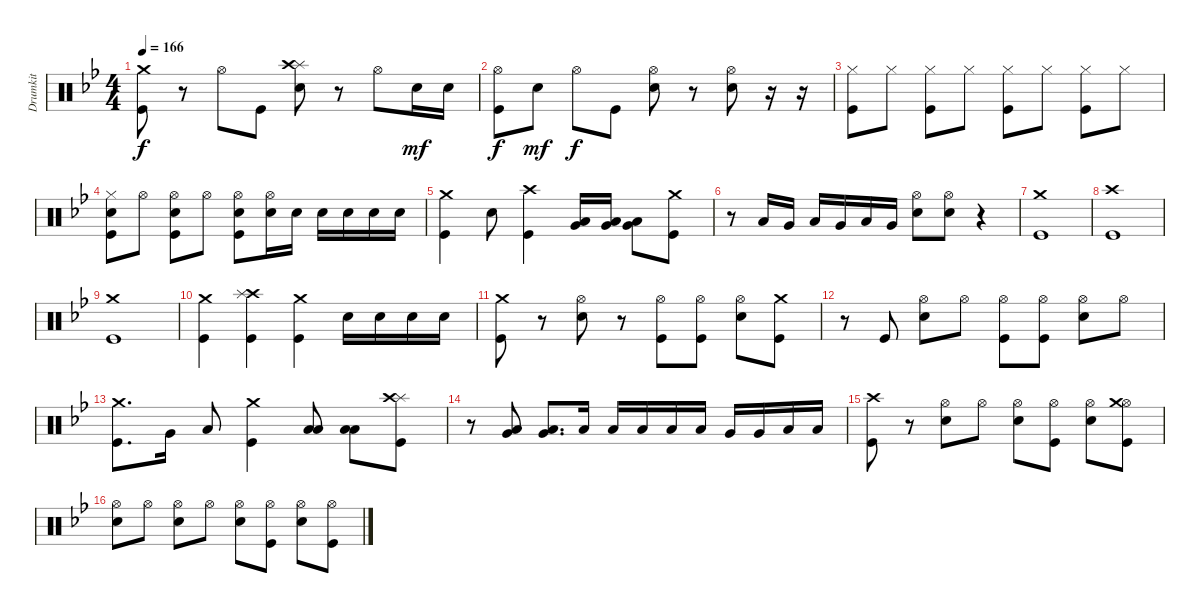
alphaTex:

\track ("Drumkit" "Drumkit") {instrument percussion}
\staff {score}
\articulation defaults
\ts (4 4)
\tempo 166
\clef neutral
\ks gminor
("Crash medium (hit)" "Kick (hit)").8{dy f} r.8 "Hi-Hat (open)".8 "Kick (hit)".8 ("Snare (hit) 2" "Splash (hit)" "Crash high (hit)").8 r.8 "Hi-Hat (open)".8 "Snare (hit) 2".16{dy mf} "Snare (hit) 2".16 |
("Kick (hit)" "Hi-Hat (open)").8{dy f} "Snare (hit) 2".8{dy mf} "Hi-Hat (open)".8{dy f} "Kick (hit)".8 ("Snare (hit) 2" "Hi-Hat (open)").8 r.8 ("Hi-Hat (open)" "Snare (hit) 2").8 r.16 r.16 |
("Kick (hit)" "Hi-Hat (closed)").8 "Hi-Hat (closed)".8 ("Hi-Hat (closed)" "Kick (hit)").8 "Hi-Hat (closed)".8 ("Hi-Hat (closed)" "Kick (hit)").8 "Hi-Hat (closed)".8 ("Hi-Hat (closed)" "Kick (hit)").8 "Hi-Hat (closed)".8 |
("Hi-Hat (closed)" "Kick (hit)" "Snare (hit) 2").8 "Hi-Hat (open)".8 ("Hi-Hat (open)" "Kick (hit)" "Snare (hit) 2").8 "Hi-Hat (open)".8 ("Hi-Hat (open)" "Kick (hit)" "Snare (hit) 2").8 ("Hi-Hat (open)" "Snare (hit) 2").16 "Snare (hit) 2".16 "Snare (hit) 2".16 "Snare (hit) 2".16 "Snare (hit) 2".16 "Snare (hit) 2".16 |
("Kick (hit)" "Crash medium (hit)").4 "Snare (hit) 2".8 ("Kick (hit)" "Crash high (hit)").4 ("Very Low Tom (hit)" "Low Floor Tom (hit)").16 ("Very Low Tom (hit)" "Low Floor Tom (hit)").16 ("Very Low Tom (hit)" "Low Floor Tom (hit)").8 ("Kick (hit)" "Crash medium (hit)").8 |
r.8 "Low Floor Tom (hit)".16 "Very Low Tom (hit)".16 "Low Floor Tom (hit)".16 "Very Low Tom (hit)".16 "Low Floor Tom (hit)".16 "Very Low Tom (hit)".16 ("Snare (hit) 2" "Hi-Hat (open)").8 ("Snare (hit) 2" "Hi-Hat (open)").8 r.4 |
("Kick (hit)" "Crash medium (hit)").1 |
("Kick (hit)" "Crash high (hit)").1 |
("Kick (hit)" "Crash medium (hit)").1 |
("Kick (hit)" "Crash medium (hit)").4 ("Kick (hit)" "Crash high (hit)" "Splash (hit)").4 ("Kick (hit)" "Crash medium (hit)").4 "Snare (hit) 2".16 "Snare (hit) 2".16 "Snare (hit) 2".16 "Snare (hit) 2".16 |
("Kick (hit)" "Crash medium (hit)").8 r.8 ("Snare (hit) 2" "Hi-Hat (open)").8 r.8 ("Kick (hit)" "Hi-Hat (open)").8 ("Kick (hit)" "Hi-Hat (open)").8 ("Snare (hit) 2" "Hi-Hat (open)").8 ("Kick (hit)" "Crash medium (hit)").8 |
r.8 "Kick (hit)".8 ("Snare (hit) 2" "Hi-Hat (open)").8 "Hi-Hat (open)".8 ("Kick (hit)" "Hi-Hat (open)").8 ("Kick (hit)" "Hi-Hat (open)").8 ("Snare (hit) 2" "Hi-Hat (open)").8 "Hi-Hat (open)".8 |
("Kick (hit)" "Crash medium (hit)").8{d} "Very Low Tom (hit)".16 "Low Floor Tom (hit)".8 ("Kick (hit)" "Crash medium (hit)").4 ("Low Floor Tom (hit)" "Low Tom (hit)").8 ("Low Floor Tom (hit)" "Low Tom (hit)").8 ("Kick (hit)" "Splash (hit)" "Crash high (hit)").8 |
r.8 ("Low Tom (hit)" "Very Low Tom (hit)").8 ("Low Floor Tom (hit)" "Very Low Tom (hit)").8{d} "Low Floor Tom (hit)".16 "Low Floor Tom (hit)".16 "Low Tom (hit)".16 "Low Tom (hit)".16 "Low Tom (hit)".16 "Very Low Tom (hit)".16 "Very Low Tom (hit)".16 "Low Floor Tom (hit)".16 "Low Floor Tom (hit)".16 |
("Kick (hit)" "Crash high (hit)").8 r.8 ("Snare (hit) 2" "Hi-Hat (open)").8 "Hi-Hat (open)".8 ("Snare (hit) 2" "Hi-Hat (open)").8 ("Kick (hit)" "Hi-Hat (open)").8 ("Snare (hit) 2" "Hi-Hat (open)").8 ("Kick (hit)" "Hi-Hat (open)" "Crash medium (hit)").8 |
("Snare (hit) 2" "Hi-Hat (open)").8 "Hi-Hat (open)".8 ("Snare (hit) 2" "Hi-Hat (open)").8 "Hi-Hat (open)".8 ("Snare (hit) 2" "Hi-Hat (open)").8 ("Kick (hit)" "Hi-Hat (open)").8 ("Snare (hit) 2" "Hi-Hat (open)").8 ("Kick (hit)" "Hi-Hat (open)").8
